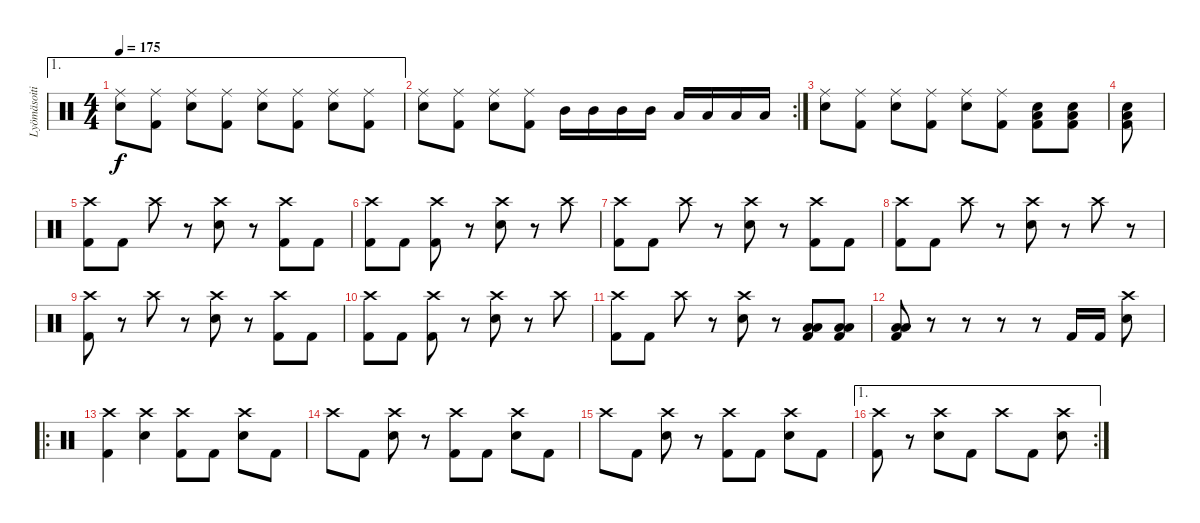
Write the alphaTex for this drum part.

\track ("Lyömäsoitin" "Lyömäsoiti") {instrument percussion}
\staff {score}
\articulation defaults
\ae 1
\ts (4 4)
\tempo 175
\clef neutral
\ks c
("Electric Snare (hit)" "Ride (middle)").8{dy f} ("Kick (hit) 2" "Ride (middle)").8 ("Electric Snare (hit)" "Ride (middle)").8 ("Kick (hit) 2" "Ride (middle)").8 ("Electric Snare (hit)" "Ride (middle)").8 ("Kick (hit) 2" "Ride (middle)").8 ("Electric Snare (hit)" "Ride (middle)").8 ("Kick (hit) 2" "Ride (middle)").8 |
\rc 2
("Electric Snare (hit)" "Ride (middle)").8 ("Kick (hit) 2" "Ride (middle)").8 ("Electric Snare (hit)" "Ride (middle)").8 ("Kick (hit) 2" "Ride (middle)").8 "Mid Tom (hit)".16 "Mid Tom (hit)".16 "Mid Tom (hit)".16 "Mid Tom (hit)".16 "Low Tom (hit)".16 "Low Tom (hit)".16 "Low Tom (hit)".16 "Low Tom (hit)".16 |
("Electric Snare (hit)" "Ride (middle)").8 ("Kick (hit) 2" "Ride (middle)").8 ("Electric Snare (hit)" "Ride (middle)").8 ("Kick (hit) 2" "Ride (middle)").8 ("Electric Snare (hit)" "Ride (middle)").8 ("Kick (hit) 2" "Ride (middle)").8 ("Kick (hit) 2" "Electric Snare (hit)" "Low Floor Tom (hit)").8 ("Kick (hit) 2" "Electric Snare (hit)" "Low Floor Tom (hit)").8 |
("Kick (hit) 2" "Electric Snare (hit)" "Low Floor Tom (hit)").8 |
("Kick (hit) 2" "Crash high (hit)").8 "Kick (hit) 2".8 "Crash high (hit)".8 r.8 ("Electric Snare (hit)" "Crash high (hit)").8 r.8 ("Kick (hit) 2" "Crash high (hit)").8 "Kick (hit) 2".8 |
("Kick (hit) 2" "Crash high (hit)").8 "Kick (hit) 2".8 ("Kick (hit) 2" "Crash high (hit)").8 r.8 ("Electric Snare (hit)" "Crash high (hit)").8 r.8 "Crash high (hit)".8 |
("Kick (hit) 2" "Crash high (hit)").8 "Kick (hit) 2".8 "Crash high (hit)".8 r.8 ("Electric Snare (hit)" "Crash high (hit)").8 r.8 ("Kick (hit) 2" "Crash high (hit)").8 "Kick (hit) 2".8 |
("Kick (hit) 2" "Crash high (hit)").8 "Kick (hit) 2".8 "Crash high (hit)".8 r.8 ("Electric Snare (hit)" "Crash high (hit)").8 r.8 "Crash high (hit)".8 r.8 |
("Kick (hit) 2" "Crash high (hit)").8 r.8 "Crash high (hit)".8 r.8 ("Electric Snare (hit)" "Crash high (hit)").8 r.8 ("Kick (hit) 2" "Crash high (hit)").8 "Kick (hit) 2".8 |
("Kick (hit) 2" "Crash high (hit)").8 "Kick (hit) 2".8 ("Kick (hit) 2" "Crash high (hit)").8 r.8 ("Electric Snare (hit)" "Crash high (hit)").8 r.8 "Crash high (hit)".8 |
("Kick (hit) 2" "Crash high (hit)").8 "Kick (hit) 2".8 "Crash high (hit)".8 r.8 ("Electric Snare (hit)" "Crash high (hit)").8 r.8 ("Kick (hit) 2" "Low Tom (hit)" "Low Floor Tom (hit)").8 ("Kick (hit) 2" "Low Tom (hit)" "Low Floor Tom (hit)").8 |
("Kick (hit) 2" "Low Tom (hit)" "Low Floor Tom (hit)").8 r.8 r.8 r.8 r.8 "Kick (hit) 2".16 "Kick (hit) 2".16 ("Electric Snare (hit)" "Crash high (hit)").8 |
\ro
("Kick (hit) 2" "Crash high (hit)").4 ("Electric Snare (hit)" "Crash high (hit)").4 ("Kick (hit) 2" "Crash high (hit)").8 "Kick (hit) 2".8 ("Electric Snare (hit)" "Crash high (hit)").8 "Kick (hit) 2".8 |
"Crash high (hit)".8 "Kick (hit) 2".8 ("Electric Snare (hit)" "Crash high (hit)").8 r.8 ("Kick (hit) 2" "Crash high (hit)").8 "Kick (hit) 2".8 ("Electric Snare (hit)" "Crash high (hit)").8 "Kick (hit) 2".8 |
"Crash high (hit)".8 "Kick (hit) 2".8 ("Electric Snare (hit)" "Crash high (hit)").8 r.8 ("Kick (hit) 2" "Crash high (hit)").8 "Kick (hit) 2".8 ("Electric Snare (hit)" "Crash high (hit)").8 "Kick (hit) 2".8 |
\ae 1
\rc 2
("Kick (hit) 2" "Crash high (hit)").8 r.8 ("Electric Snare (hit)" "Crash high (hit)").8 "Kick (hit) 2".8 "Crash high (hit)".8 "Kick (hit) 2".8 ("Electric Snare (hit)" "Crash high (hit)").8
